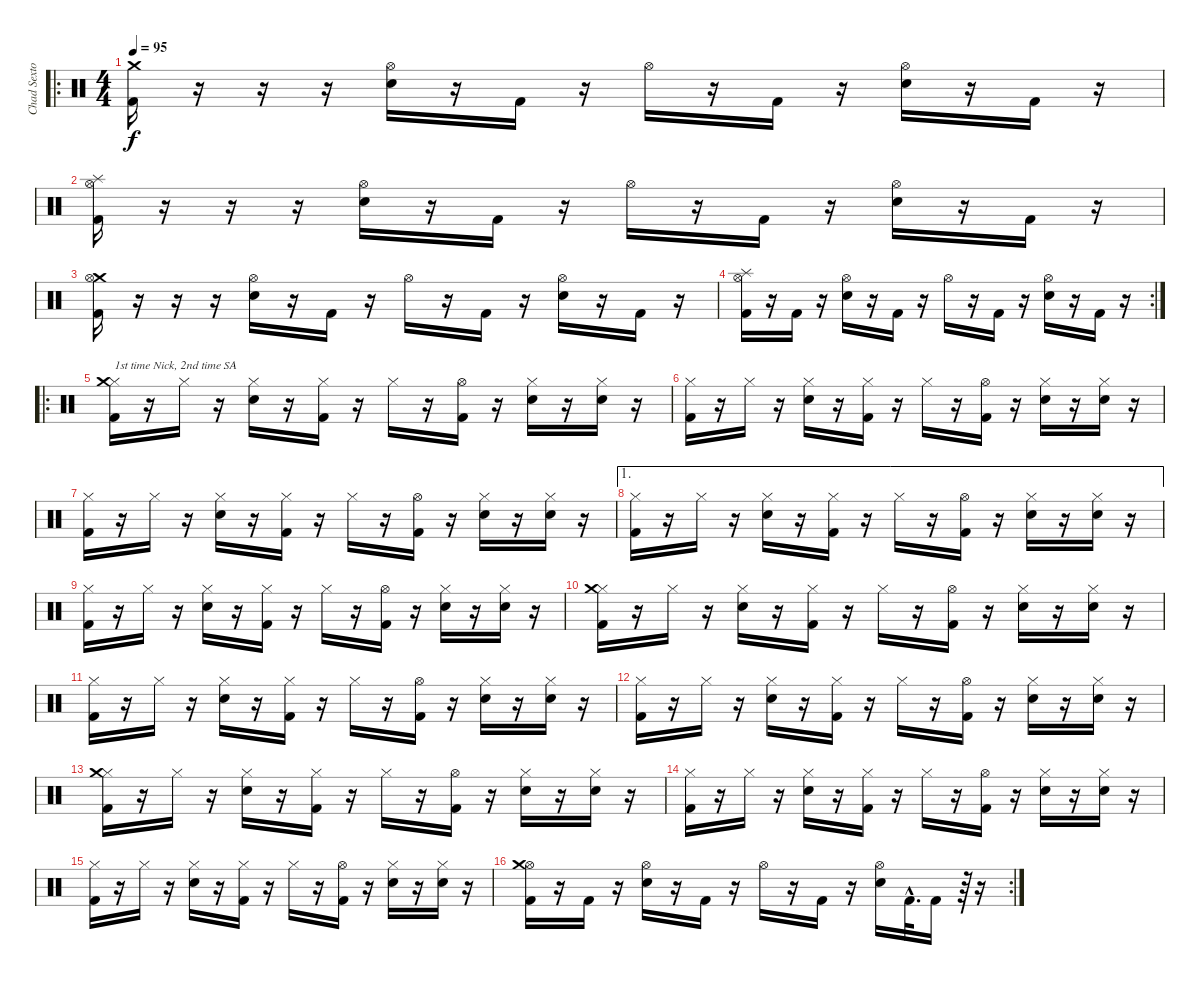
\track ("Chad Sexton" "Chad Sexto") {instrument percussion}
\staff {score}
\articulation defaults
\ro
\ts (4 4)
\tempo 95
\clef neutral
\ks c
("Kick (hit) 2" "Crash medium (hit)").16{dy f} r.16 r.16 r.16 ("Electric Snare (hit)" "Hi-Hat (open)").16 r.16 "Kick (hit) 2".16 r.16 "Hi-Hat (open)".16 r.16 "Kick (hit) 2".16 r.16 ("Electric Snare (hit)" "Hi-Hat (open)").16 r.16 "Kick (hit) 2".16 r.16 |
("Splash (hit)" "Kick (hit) 2" "Hi-Hat (open)").16 r.16 r.16 r.16 ("Electric Snare (hit)" "Hi-Hat (open)").16 r.16 "Kick (hit) 2".16 r.16 "Hi-Hat (open)".16 r.16 "Kick (hit) 2".16 r.16 ("Electric Snare (hit)" "Hi-Hat (open)").16 r.16 "Kick (hit) 2".16 r.16 |
("Crash medium (hit)" "Kick (hit) 2" "Hi-Hat (open)").16 r.16 r.16 r.16 ("Electric Snare (hit)" "Hi-Hat (open)").16 r.16 "Kick (hit) 2".16 r.16 "Hi-Hat (open)".16 r.16 "Kick (hit) 2".16 r.16 ("Electric Snare (hit)" "Hi-Hat (open)").16 r.16 "Kick (hit) 2".16 r.16 |
\rc 2
("Splash (hit)" "Kick (hit) 2" "Hi-Hat (open)").16 r.16 "Kick (hit) 2".16 r.16 ("Electric Snare (hit)" "Hi-Hat (open)").16 r.16 "Kick (hit) 2".16 r.16 "Hi-Hat (open)".16 r.16 "Kick (hit) 2".16 r.16 ("Electric Snare (hit)" "Hi-Hat (open)").16 r.16 "Kick (hit) 2".16 r.16 |
\ro
("Hi-Hat (closed)" "Crash medium (hit)" "Kick (hit) 2").16{txt "1st time Nick, 2nd time SA"} r.16 "Hi-Hat (closed)".16 r.16 ("Hi-Hat (closed)" "Electric Snare (hit)").16 r.16 ("Hi-Hat (closed)" "Kick (hit) 2").16 r.16 "Hi-Hat (closed)".16 r.16 ("Hi-Hat (open)" "Kick (hit) 2").16 r.16 ("Hi-Hat (closed)" "Electric Snare (hit)").16 r.16 ("Hi-Hat (closed)" "Electric Snare (hit)").16 r.16 |
("Hi-Hat (closed)" "Kick (hit) 2").16 r.16 "Hi-Hat (closed)".16 r.16 ("Hi-Hat (closed)" "Electric Snare (hit)").16 r.16 ("Hi-Hat (closed)" "Kick (hit) 2").16 r.16 "Hi-Hat (closed)".16 r.16 ("Hi-Hat (open)" "Kick (hit) 2").16 r.16 ("Hi-Hat (closed)" "Electric Snare (hit)").16 r.16 ("Hi-Hat (closed)" "Electric Snare (hit)").16 r.16 |
("Hi-Hat (closed)" "Kick (hit) 2").16 r.16 "Hi-Hat (closed)".16 r.16 ("Hi-Hat (closed)" "Electric Snare (hit)").16 r.16 ("Hi-Hat (closed)" "Kick (hit) 2").16 r.16 "Hi-Hat (closed)".16 r.16 ("Hi-Hat (open)" "Kick (hit) 2").16 r.16 ("Hi-Hat (closed)" "Electric Snare (hit)").16 r.16 ("Hi-Hat (closed)" "Electric Snare (hit)").16 r.16 |
\ae 1
("Hi-Hat (closed)" "Kick (hit) 2").16 r.16 "Hi-Hat (closed)".16 r.16 ("Hi-Hat (closed)" "Electric Snare (hit)").16 r.16 ("Hi-Hat (closed)" "Kick (hit) 2").16 r.16 "Hi-Hat (closed)".16 r.16 ("Hi-Hat (open)" "Kick (hit) 2").16 r.16 ("Hi-Hat (closed)" "Electric Snare (hit)").16 r.16 ("Hi-Hat (closed)" "Electric Snare (hit)").16 r.16 |
("Hi-Hat (closed)" "Kick (hit) 2").16 r.16 "Hi-Hat (closed)".16 r.16 ("Hi-Hat (closed)" "Electric Snare (hit)").16 r.16 ("Hi-Hat (closed)" "Kick (hit) 2").16 r.16 "Hi-Hat (closed)".16 r.16 ("Hi-Hat (open)" "Kick (hit) 2").16 r.16 ("Hi-Hat (closed)" "Electric Snare (hit)").16 r.16 ("Hi-Hat (closed)" "Electric Snare (hit)").16 r.16 |
("Hi-Hat (closed)" "Crash medium (hit)" "Kick (hit) 2").16 r.16 "Hi-Hat (closed)".16 r.16 ("Hi-Hat (closed)" "Electric Snare (hit)").16 r.16 ("Hi-Hat (closed)" "Kick (hit) 2").16 r.16 "Hi-Hat (closed)".16 r.16 ("Hi-Hat (open)" "Kick (hit) 2").16 r.16 ("Hi-Hat (closed)" "Electric Snare (hit)").16 r.16 ("Hi-Hat (closed)" "Electric Snare (hit)").16 r.16 |
("Hi-Hat (closed)" "Kick (hit) 2").16 r.16 "Hi-Hat (closed)".16 r.16 ("Hi-Hat (closed)" "Electric Snare (hit)").16 r.16 ("Hi-Hat (closed)" "Kick (hit) 2").16 r.16 "Hi-Hat (closed)".16 r.16 ("Hi-Hat (open)" "Kick (hit) 2").16 r.16 ("Hi-Hat (closed)" "Electric Snare (hit)").16 r.16 ("Hi-Hat (closed)" "Electric Snare (hit)").16 r.16 |
("Hi-Hat (closed)" "Kick (hit) 2").16 r.16 "Hi-Hat (closed)".16 r.16 ("Hi-Hat (closed)" "Electric Snare (hit)").16 r.16 ("Hi-Hat (closed)" "Kick (hit) 2").16 r.16 "Hi-Hat (closed)".16 r.16 ("Hi-Hat (open)" "Kick (hit) 2").16 r.16 ("Hi-Hat (closed)" "Electric Snare (hit)").16 r.16 ("Hi-Hat (closed)" "Electric Snare (hit)").16 r.16 |
("Hi-Hat (closed)" "Crash medium (hit)" "Kick (hit) 2").16 r.16 "Hi-Hat (closed)".16 r.16 ("Hi-Hat (closed)" "Electric Snare (hit)").16 r.16 ("Hi-Hat (closed)" "Kick (hit) 2").16 r.16 "Hi-Hat (closed)".16 r.16 ("Hi-Hat (open)" "Kick (hit) 2").16 r.16 ("Hi-Hat (closed)" "Electric Snare (hit)").16 r.16 ("Hi-Hat (closed)" "Electric Snare (hit)").16 r.16 |
("Hi-Hat (closed)" "Kick (hit) 2").16 r.16 "Hi-Hat (closed)".16 r.16 ("Hi-Hat (closed)" "Electric Snare (hit)").16 r.16 ("Hi-Hat (closed)" "Kick (hit) 2").16 r.16 "Hi-Hat (closed)".16 r.16 ("Hi-Hat (open)" "Kick (hit) 2").16 r.16 ("Hi-Hat (closed)" "Electric Snare (hit)").16 r.16 ("Hi-Hat (closed)" "Electric Snare (hit)").16 r.16 |
("Hi-Hat (closed)" "Kick (hit) 2").16 r.16 "Hi-Hat (closed)".16 r.16 ("Hi-Hat (closed)" "Electric Snare (hit)").16 r.16 ("Hi-Hat (closed)" "Kick (hit) 2").16 r.16 "Hi-Hat (closed)".16 r.16 ("Hi-Hat (open)" "Kick (hit) 2").16 r.16 ("Hi-Hat (closed)" "Electric Snare (hit)").16 r.16 ("Hi-Hat (closed)" "Electric Snare (hit)").16 r.16 |
\rc 2
("Hi-Hat (open)" "Crash medium (hit)" "Kick (hit) 2").16 r.16 "Kick (hit) 2".16 r.16 ("Hi-Hat (open)" "Electric Snare (hit)").16 r.16 "Kick (hit) 2".16 r.16 "Hi-Hat (open)".16 r.16 "Kick (hit) 2".16 r.16 ("Hi-Hat (open)" "Electric Snare (hit)").16 "Kick (hit) 2"{hac}.32{d} "Kick (hit) 2".16 r.64 r.16
